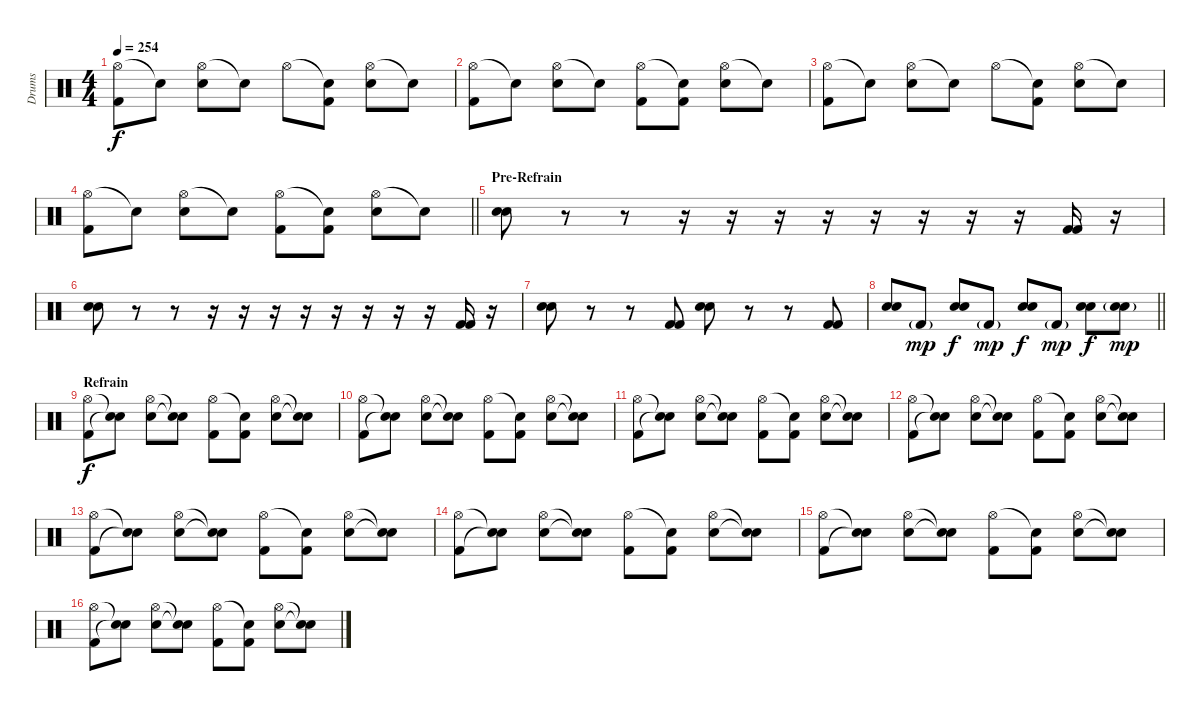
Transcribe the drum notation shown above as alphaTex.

\track ("Drums" "Drums") {instrument percussion}
\staff {score}
\articulation defaults
\ts (4 4)
\tempo 254
\clef neutral
\ks c
("Hi-Hat (open)" "Kick (hit) 2").8{dy f} "Snare (hit)"{t}.8 ("Hi-Hat (open)" "Electric Snare (hit)").8 "Snare (hit)"{t}.8 "Hi-Hat (open)".8 ("Snare (hit)"{t} "Kick (hit) 2").8 ("Hi-Hat (open)" "Electric Snare (hit)").8 "Snare (hit)"{t}.8 |
("Hi-Hat (open)" "Kick (hit) 2").8 "Snare (hit)"{t}.8 ("Hi-Hat (open)" "Electric Snare (hit)").8 "Snare (hit)"{t}.8 ("Hi-Hat (open)" "Kick (hit) 2").8 ("Snare (hit)"{t} "Kick (hit) 2").8 ("Hi-Hat (open)" "Electric Snare (hit)").8 "Snare (hit)"{t}.8 |
("Hi-Hat (open)" "Kick (hit) 2").8 "Snare (hit)"{t}.8 ("Hi-Hat (open)" "Electric Snare (hit)").8 "Snare (hit)"{t}.8 "Hi-Hat (open)".8 ("Snare (hit)"{t} "Kick (hit) 2").8 ("Hi-Hat (open)" "Electric Snare (hit)").8 "Snare (hit)"{t}.8 |
\barLineRight lightlight
("Hi-Hat (open)" "Kick (hit) 2").8 "Snare (hit)"{t}.8 ("Hi-Hat (open)" "Electric Snare (hit)").8 "Snare (hit)"{t}.8 ("Hi-Hat (open)" "Kick (hit) 2").8 ("Snare (hit)"{t} "Kick (hit) 2").8 ("Hi-Hat (open)" "Electric Snare (hit)").8 "Snare (hit)"{t}.8 |
\section ("" "Pre-Refrain")
("Snare (hit) 2" "Electric Snare (hit)").8 r.8 r.8 r.16 r.16 r.16 r.16 r.16 r.16 r.16 r.16 ("Kick (hit) 2" "Kick (hit) 2").16 r.16 |
("Snare (hit) 2" "Electric Snare (hit)").8 r.8 r.8 r.16 r.16 r.16 r.16 r.16 r.16 r.16 r.16 ("Kick (hit) 2" "Kick (hit) 2").16 r.16 |
("Snare (hit) 2" "Electric Snare (hit)").8 r.8 r.8 ("Kick (hit) 2" "Kick (hit) 2").8 ("Snare (hit) 2" "Electric Snare (hit)").8 r.8 r.8 ("Kick (hit) 2" "Kick (hit) 2").8 |
\barLineRight lightlight
("Snare (hit) 2" "Electric Snare (hit)").8 "Kick (hit) 2"{g}.8{dy mp} ("Snare (hit) 2" "Electric Snare (hit)").8{dy f} "Kick (hit) 2"{g}.8{dy mp} ("Snare (hit) 2" "Electric Snare (hit)").8{dy f} "Kick (hit) 2"{g}.8{dy mp} ("Snare (hit) 2" "Electric Snare (hit)").8{dy f} ("Snare (hit) 2"{g} "Electric Snare (hit)"{g}).8{dy mp} |
\section ("" "Refrain")
("Hi-Hat (open)" "Kick (hit) 2").8{dy f} ("Snare (hit)"{t} "Snare (hit)"{t}).8 ("Hi-Hat (open)" "Electric Snare (hit)").8 ("Snare (hit)"{t} "Snare (hit)"{t}).8 ("Hi-Hat (open)" "Kick (hit) 2").8 ("Snare (hit)"{t} "Kick (hit) 2").8 ("Hi-Hat (open)" "Electric Snare (hit)").8 ("Snare (hit)"{t} "Snare (hit)"{t}).8 |
("Hi-Hat (open)" "Kick (hit) 2").8 ("Snare (hit)"{t} "Snare (hit)"{t}).8 ("Hi-Hat (open)" "Electric Snare (hit)").8 ("Snare (hit)"{t} "Snare (hit)"{t}).8 ("Hi-Hat (open)" "Kick (hit) 2").8 ("Snare (hit)"{t} "Kick (hit) 2").8 ("Hi-Hat (open)" "Electric Snare (hit)").8 ("Snare (hit)"{t} "Snare (hit)"{t}).8 |
("Hi-Hat (open)" "Kick (hit) 2").8 ("Snare (hit)"{t} "Snare (hit)"{t}).8 ("Hi-Hat (open)" "Electric Snare (hit)").8 ("Snare (hit)"{t} "Snare (hit)"{t}).8 ("Hi-Hat (open)" "Kick (hit) 2").8 ("Snare (hit)"{t} "Kick (hit) 2").8 ("Hi-Hat (open)" "Electric Snare (hit)").8 ("Snare (hit)"{t} "Snare (hit)"{t}).8 |
("Hi-Hat (open)" "Kick (hit) 2").8 ("Snare (hit)"{t} "Snare (hit)"{t}).8 ("Hi-Hat (open)" "Electric Snare (hit)").8 ("Snare (hit)"{t} "Snare (hit)"{t}).8 ("Hi-Hat (open)" "Kick (hit) 2").8 ("Snare (hit)"{t} "Kick (hit) 2").8 ("Hi-Hat (open)" "Electric Snare (hit)").8 ("Snare (hit)"{t} "Snare (hit)"{t}).8 |
("Hi-Hat (open)" "Kick (hit) 2").8 ("Snare (hit)"{t} "Snare (hit)"{t}).8 ("Hi-Hat (open)" "Electric Snare (hit)").8 ("Snare (hit)"{t} "Snare (hit)"{t}).8 ("Hi-Hat (open)" "Kick (hit) 2").8 ("Snare (hit)"{t} "Kick (hit) 2").8 ("Hi-Hat (open)" "Electric Snare (hit)").8 ("Snare (hit)"{t} "Snare (hit)"{t}).8 |
("Hi-Hat (open)" "Kick (hit) 2").8 ("Snare (hit)"{t} "Snare (hit)"{t}).8 ("Hi-Hat (open)" "Electric Snare (hit)").8 ("Snare (hit)"{t} "Snare (hit)"{t}).8 ("Hi-Hat (open)" "Kick (hit) 2").8 ("Snare (hit)"{t} "Kick (hit) 2").8 ("Hi-Hat (open)" "Electric Snare (hit)").8 ("Snare (hit)"{t} "Snare (hit)"{t}).8 |
("Hi-Hat (open)" "Kick (hit) 2").8 ("Snare (hit)"{t} "Snare (hit)"{t}).8 ("Hi-Hat (open)" "Electric Snare (hit)").8 ("Snare (hit)"{t} "Snare (hit)"{t}).8 ("Hi-Hat (open)" "Kick (hit) 2").8 ("Snare (hit)"{t} "Kick (hit) 2").8 ("Hi-Hat (open)" "Electric Snare (hit)").8 ("Snare (hit)"{t} "Snare (hit)"{t}).8 |
("Hi-Hat (open)" "Kick (hit) 2").8 ("Snare (hit)"{t} "Snare (hit)"{t}).8 ("Hi-Hat (open)" "Electric Snare (hit)").8 ("Snare (hit)"{t} "Snare (hit)"{t}).8 ("Hi-Hat (open)" "Kick (hit) 2").8 ("Snare (hit)"{t} "Kick (hit) 2").8 ("Hi-Hat (open)" "Electric Snare (hit)").8 ("Snare (hit)"{t} "Snare (hit)"{t}).8
